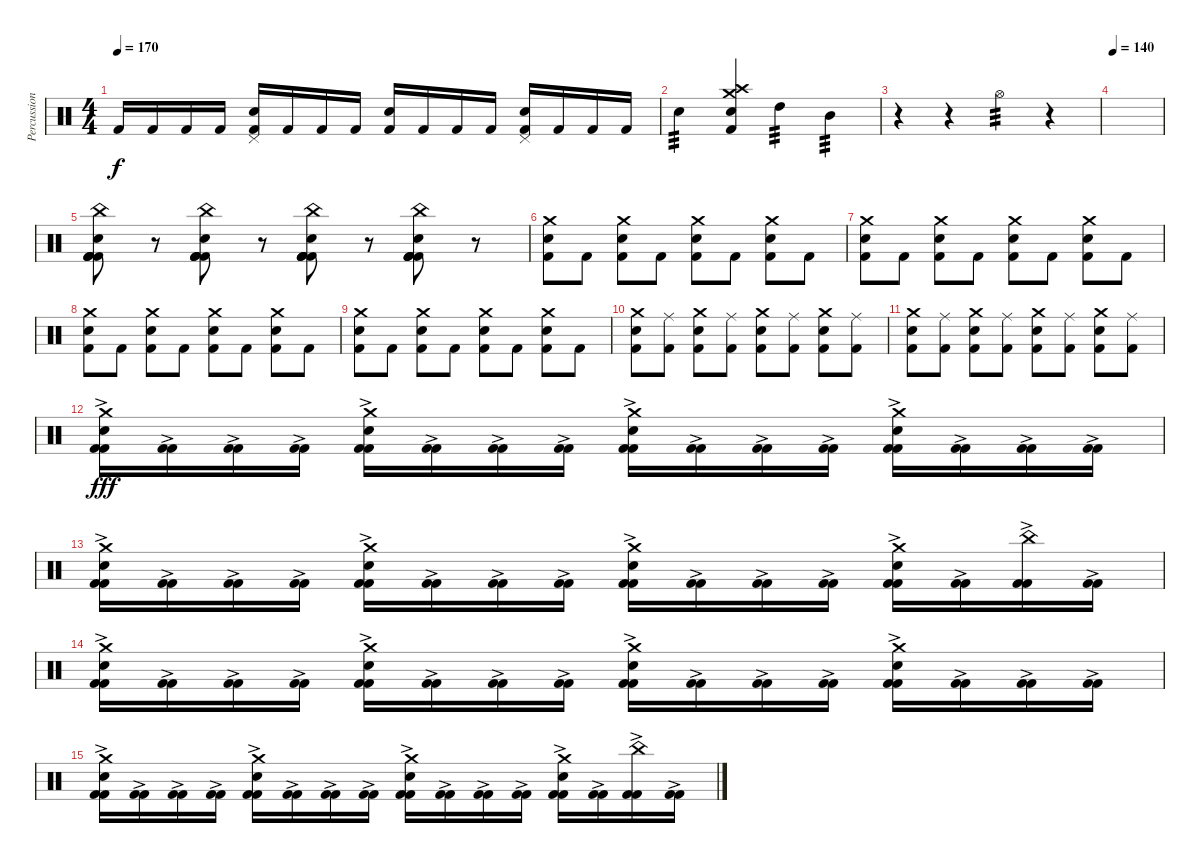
\track ("Percussions" "Percussion") {instrument percussion}
\staff {score}
\articulation defaults
\ts (4 4)
\tempo 170
\clef neutral
\ks c "Kick (hit) 2".16{dy f} "Kick (hit) 2".16 "Kick (hit) 2".16 "Kick (hit) 2".16
("Pedal Hi-Hat (hit)" "Snare (hit) 2" "Kick (hit) 2").16 "Kick (hit) 2".16 "Kick (hit) 2".16 "Kick (hit) 2".16 ("Snare (hit) 2" "Kick (hit) 2").16 "Kick (hit) 2".16 "Kick (hit) 2".16 "Kick (hit) 2".16 ("Pedal Hi-Hat (hit)" "Snare (hit) 2" "Kick (hit) 2").16 "Kick (hit) 2".16 "Kick (hit) 2".16 "Kick (hit) 2".16 |
"Snare (hit) 2".4{tp 3} ("Crash high (hit)" "Crash medium (hit)" "Electric Snare (hit)" "Kick (hit) 2").4 "High Tom (hit)".4{tp 3} "Mid Tom (hit)".4{tp 3} |
r.4 r.4 "Hi-Hat (open)".4{tp 3} r.4 |
\tempo 140
|
("Kick (hit) 2" "Kick (hit) 2" "Kick (hit) 2" "China (hit)" "Snare (hit) 2" "Kick (hit) 2").8 r.8 ("Kick (hit) 2" "Kick (hit) 2" "Kick (hit) 2" "China (hit)" "Snare (hit) 2" "Kick (hit) 2").8 r.8 ("Kick (hit) 2" "Kick (hit) 2" "Kick (hit) 2" "China (hit)" "Snare (hit) 2" "Kick (hit) 2").8 r.8 ("Kick (hit) 2" "Kick (hit) 2" "Kick (hit) 2" "China (hit)" "Snare (hit) 2" "Kick (hit) 2").8 r.8 |
("Crash medium (hit)" "Snare (hit) 2" "Kick (hit) 2").8 "Kick (hit) 2".8 ("Crash medium (hit)" "Snare (hit) 2" "Kick (hit) 2").8 "Kick (hit) 2".8 ("Crash medium (hit)" "Snare (hit) 2" "Kick (hit) 2").8 "Kick (hit) 2".8 ("Crash medium (hit)" "Snare (hit) 2" "Kick (hit) 2").8 "Kick (hit) 2".8 |
("Crash medium (hit)" "Snare (hit) 2" "Kick (hit) 2").8 "Kick (hit) 2".8 ("Crash medium (hit)" "Snare (hit) 2" "Kick (hit) 2").8 "Kick (hit) 2".8 ("Crash medium (hit)" "Snare (hit) 2" "Kick (hit) 2").8 "Kick (hit) 2".8 ("Crash medium (hit)" "Snare (hit) 2" "Kick (hit) 2").8 "Kick (hit) 2".8 |
("Crash medium (hit)" "Snare (hit) 2" "Kick (hit) 2").8 "Kick (hit) 2".8 ("Crash medium (hit)" "Snare (hit) 2" "Kick (hit) 2").8 "Kick (hit) 2".8 ("Crash medium (hit)" "Snare (hit) 2" "Kick (hit) 2").8 "Kick (hit) 2".8 ("Crash medium (hit)" "Snare (hit) 2" "Kick (hit) 2").8 "Kick (hit) 2".8 |
("Crash medium (hit)" "Snare (hit) 2" "Kick (hit) 2").8 "Kick (hit) 2".8 ("Crash medium (hit)" "Snare (hit) 2" "Kick (hit) 2").8 "Kick (hit) 2".8 ("Crash medium (hit)" "Snare (hit) 2" "Kick (hit) 2").8 "Kick (hit) 2".8 ("Crash medium (hit)" "Snare (hit) 2" "Kick (hit) 2").8 "Kick (hit) 2".8 |
("Crash medium (hit)" "Snare (hit) 2" "Kick (hit) 2").8 ("Ride (middle)" "Kick (hit) 2").8 ("Crash medium (hit)" "Snare (hit) 2" "Kick (hit) 2").8 ("Ride (middle)" "Kick (hit) 2").8 ("Crash medium (hit)" "Snare (hit) 2" "Kick (hit) 2").8 ("Ride (middle)" "Kick (hit) 2").8 ("Crash medium (hit)" "Snare (hit) 2" "Kick (hit) 2").8 ("Ride (middle)" "Kick (hit) 2").8 |
("Crash medium (hit)" "Snare (hit) 2" "Kick (hit) 2").8 ("Ride (middle)" "Kick (hit) 2").8 ("Crash medium (hit)" "Snare (hit) 2" "Kick (hit) 2").8 ("Ride (middle)" "Kick (hit) 2").8 ("Crash medium (hit)" "Snare (hit) 2" "Kick (hit) 2").8 ("Ride (middle)" "Kick (hit) 2").8 ("Crash medium (hit)" "Snare (hit) 2" "Kick (hit) 2").8 ("Ride (middle)" "Kick (hit) 2").8 |
("Kick (hit) 2"{ac} "Crash medium (hit)" "Snare (hit) 2" "Kick (hit) 2"{ac}).16{dy fff} ("Kick (hit) 2"{ac} "Kick (hit) 2"{ac}).16 ("Kick (hit) 2"{ac} "Kick (hit) 2"{ac}).16 ("Kick (hit) 2"{ac} "Kick (hit) 2"{ac}).16 ("Kick (hit) 2"{ac} "Crash medium (hit)" "Snare (hit) 2" "Kick (hit) 2"{ac}).16 ("Kick (hit) 2"{ac} "Kick (hit) 2"{ac}).16 ("Kick (hit) 2"{ac} "Kick (hit) 2"{ac}).16 ("Kick (hit) 2"{ac} "Kick (hit) 2"{ac}).16 ("Kick (hit) 2"{ac} "Crash medium (hit)" "Snare (hit) 2" "Kick (hit) 2"{ac}).16 ("Kick (hit) 2"{ac} "Kick (hit) 2"{ac}).16 ("Kick (hit) 2"{ac} "Kick (hit) 2"{ac}).16 ("Kick (hit) 2"{ac} "Kick (hit) 2"{ac}).16 ("Kick (hit) 2"{ac} "Crash medium (hit)" "Snare (hit) 2" "Kick (hit) 2"{ac}).16 ("Kick (hit) 2"{ac} "Kick (hit) 2"{ac}).16 ("Kick (hit) 2"{ac} "Kick (hit) 2"{ac}).16 ("Kick (hit) 2"{ac} "Kick (hit) 2"{ac}).16 |
("Kick (hit) 2"{ac} "Crash medium (hit)" "Snare (hit) 2" "Kick (hit) 2"{ac}).16 ("Kick (hit) 2"{ac} "Kick (hit) 2"{ac}).16 ("Kick (hit) 2"{ac} "Kick (hit) 2"{ac}).16 ("Kick (hit) 2"{ac} "Kick (hit) 2"{ac}).16 ("Kick (hit) 2"{ac} "Crash medium (hit)" "Snare (hit) 2" "Kick (hit) 2"{ac}).16 ("Kick (hit) 2"{ac} "Kick (hit) 2"{ac}).16 ("Kick (hit) 2"{ac} "Kick (hit) 2"{ac}).16 ("Kick (hit) 2"{ac} "Kick (hit) 2"{ac}).16 ("Kick (hit) 2"{ac} "Crash medium (hit)" "Snare (hit) 2" "Kick (hit) 2"{ac}).16 ("Kick (hit) 2"{ac} "Kick (hit) 2"{ac}).16 ("Kick (hit) 2"{ac} "Kick (hit) 2"{ac}).16 ("Kick (hit) 2"{ac} "Kick (hit) 2"{ac}).16 ("Kick (hit) 2"{ac} "Crash medium (hit)" "Snare (hit) 2" "Kick (hit) 2"{ac}).16 ("Kick (hit) 2"{ac} "Kick (hit) 2"{ac}).16 ("Kick (hit) 2"{ac} "China (hit)" "Kick (hit) 2"{ac}).16 ("Kick (hit) 2"{ac} "Kick (hit) 2"{ac}).16 |
("Kick (hit) 2"{ac} "Crash medium (hit)" "Snare (hit) 2" "Kick (hit) 2"{ac}).16 ("Kick (hit) 2"{ac} "Kick (hit) 2"{ac}).16 ("Kick (hit) 2"{ac} "Kick (hit) 2"{ac}).16 ("Kick (hit) 2"{ac} "Kick (hit) 2"{ac}).16 ("Kick (hit) 2"{ac} "Crash medium (hit)" "Snare (hit) 2" "Kick (hit) 2"{ac}).16 ("Kick (hit) 2"{ac} "Kick (hit) 2"{ac}).16 ("Kick (hit) 2"{ac} "Kick (hit) 2"{ac}).16 ("Kick (hit) 2"{ac} "Kick (hit) 2"{ac}).16 ("Kick (hit) 2"{ac} "Crash medium (hit)" "Snare (hit) 2" "Kick (hit) 2"{ac}).16 ("Kick (hit) 2"{ac} "Kick (hit) 2"{ac}).16 ("Kick (hit) 2"{ac} "Kick (hit) 2"{ac}).16 ("Kick (hit) 2"{ac} "Kick (hit) 2"{ac}).16 ("Kick (hit) 2"{ac} "Crash medium (hit)" "Snare (hit) 2" "Kick (hit) 2"{ac}).16 ("Kick (hit) 2"{ac} "Kick (hit) 2"{ac}).16 ("Kick (hit) 2"{ac} "Kick (hit) 2"{ac}).16 ("Kick (hit) 2"{ac} "Kick (hit) 2"{ac}).16 |
("Kick (hit) 2"{ac} "Crash medium (hit)" "Snare (hit) 2" "Kick (hit) 2"{ac}).16 ("Kick (hit) 2"{ac} "Kick (hit) 2"{ac}).16 ("Kick (hit) 2"{ac} "Kick (hit) 2"{ac}).16 ("Kick (hit) 2"{ac} "Kick (hit) 2"{ac}).16 ("Kick (hit) 2"{ac} "Crash medium (hit)" "Snare (hit) 2" "Kick (hit) 2"{ac}).16 ("Kick (hit) 2"{ac} "Kick (hit) 2"{ac}).16 ("Kick (hit) 2"{ac} "Kick (hit) 2"{ac}).16 ("Kick (hit) 2"{ac} "Kick (hit) 2"{ac}).16 ("Kick (hit) 2"{ac} "Crash medium (hit)" "Snare (hit) 2" "Kick (hit) 2"{ac}).16 ("Kick (hit) 2"{ac} "Kick (hit) 2"{ac}).16 ("Kick (hit) 2"{ac} "Kick (hit) 2"{ac}).16 ("Kick (hit) 2"{ac} "Kick (hit) 2"{ac}).16 ("Kick (hit) 2"{ac} "Crash medium (hit)" "Snare (hit) 2" "Kick (hit) 2"{ac}).16 ("Kick (hit) 2"{ac} "Kick (hit) 2"{ac}).16 ("Kick (hit) 2"{ac} "China (hit)" "Kick (hit) 2"{ac}).16 ("Kick (hit) 2"{ac} "Kick (hit) 2"{ac}).16
